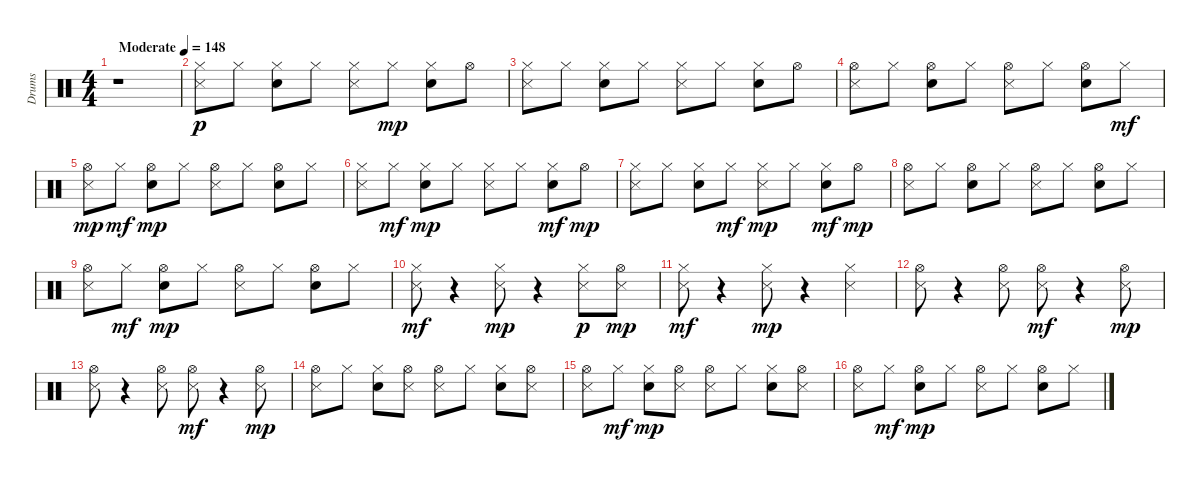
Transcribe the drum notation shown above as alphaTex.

\track ("Drums" "Drums") {instrument percussion}
\staff {score}
\articulation defaults
\ts (4 4)
\tempo (148 "Moderate")
\clef neutral
\ks c
r.1{dy p} |
("Hi-Hat (closed)" "Metronome (hit)").8 "Hi-Hat (closed)".8 ("Hi-Hat (closed)" "Electric Snare (hit)").8 "Hi-Hat (closed)".8 ("Hi-Hat (closed)" "Metronome (hit)").8 "Hi-Hat (closed)".8{dy mp} ("Hi-Hat (closed)" "Electric Snare (hit)").8 "Hi-Hat (open)".8 |
("Hi-Hat (closed)" "Metronome (hit)").8 "Hi-Hat (closed)".8 ("Hi-Hat (closed)" "Electric Snare (hit)").8 "Hi-Hat (closed)".8 ("Hi-Hat (closed)" "Metronome (hit)").8 "Hi-Hat (closed)".8 ("Hi-Hat (closed)" "Electric Snare (hit)").8 "Hi-Hat (open)".8 |
("Hi-Hat (open)" "Metronome (hit)").8 "Hi-Hat (closed)".8 ("Hi-Hat (open)" "Electric Snare (hit)").8 "Hi-Hat (closed)".8 ("Hi-Hat (open)" "Metronome (hit)").8 "Hi-Hat (closed)".8 ("Hi-Hat (open)" "Electric Snare (hit)").8 "Hi-Hat (closed)".8{dy mf} |
("Hi-Hat (open)" "Metronome (hit)").8{dy mp} "Hi-Hat (closed)".8{dy mf} ("Hi-Hat (open)" "Electric Snare (hit)").8{dy mp} "Hi-Hat (closed)".8 ("Hi-Hat (open)" "Metronome (hit)").8 "Hi-Hat (closed)".8 ("Hi-Hat (open)" "Electric Snare (hit)").8 "Hi-Hat (closed)".8 |
("Hi-Hat (closed)" "Metronome (hit)").8 "Hi-Hat (closed)".8{dy mf} ("Hi-Hat (closed)" "Electric Snare (hit)").8{dy mp} "Hi-Hat (closed)".8 ("Hi-Hat (closed)" "Metronome (hit)").8 "Hi-Hat (closed)".8 ("Hi-Hat (closed)" "Electric Snare (hit)").8{dy mf} "Hi-Hat (open)".8{dy mp} |
("Hi-Hat (closed)" "Metronome (hit)").8 "Hi-Hat (closed)".8 ("Hi-Hat (closed)" "Electric Snare (hit)").8 "Hi-Hat (closed)".8{dy mf} ("Hi-Hat (closed)" "Metronome (hit)").8{dy mp} "Hi-Hat (closed)".8 ("Hi-Hat (closed)" "Electric Snare (hit)").8{dy mf} "Hi-Hat (open)".8{dy mp} |
("Hi-Hat (open)" "Metronome (hit)").8 "Hi-Hat (closed)".8 ("Hi-Hat (open)" "Electric Snare (hit)").8 "Hi-Hat (closed)".8 ("Hi-Hat (open)" "Metronome (hit)").8 "Hi-Hat (closed)".8 ("Hi-Hat (open)" "Electric Snare (hit)").8 "Hi-Hat (closed)".8 |
("Hi-Hat (open)" "Metronome (hit)").8 "Hi-Hat (closed)".8{dy mf} ("Hi-Hat (open)" "Electric Snare (hit)").8{dy mp} "Hi-Hat (closed)".8 ("Hi-Hat (open)" "Metronome (hit)").8 "Hi-Hat (closed)".8 ("Hi-Hat (open)" "Electric Snare (hit)").8 "Hi-Hat (closed)".8 |
("Hi-Hat (closed)" "Metronome (hit)").8{dy mf} r.4 ("Hi-Hat (closed)" "Metronome (hit)").8{dy mp} r.4 ("Hi-Hat (closed)" "Metronome (hit)").8{dy p} ("Hi-Hat (open)" "Metronome (hit)").8{dy mp} |
("Hi-Hat (closed)" "Metronome (hit)").8{dy mf} r.4 ("Hi-Hat (closed)" "Metronome (hit)").8{dy mp} r.4 ("Hi-Hat (closed)" "Metronome (hit)").4 |
("Hi-Hat (open)" "Metronome (hit)").8 r.4 ("Hi-Hat (open)" "Metronome (hit)").8 ("Hi-Hat (open)" "Metronome (hit)").8{dy mf} r.4 ("Hi-Hat (open)" "Metronome (hit)").8{dy mp} |
("Hi-Hat (open)" "Metronome (hit)").8 r.4 ("Hi-Hat (open)" "Metronome (hit)").8 ("Hi-Hat (open)" "Metronome (hit)").8{dy mf} r.4 ("Hi-Hat (open)" "Metronome (hit)").8{dy mp} |
("Hi-Hat (open)" "Metronome (hit)").8 "Hi-Hat (closed)".8 ("Hi-Hat (closed)" "Electric Snare (hit)").8 ("Hi-Hat (open)" "Metronome (hit)").8 ("Hi-Hat (open)" "Metronome (hit)").8 "Hi-Hat (closed)".8 ("Hi-Hat (closed)" "Electric Snare (hit)").8 ("Hi-Hat (open)" "Metronome (hit)").8 |
("Hi-Hat (open)" "Metronome (hit)").8 "Hi-Hat (closed)".8{dy mf} ("Hi-Hat (closed)" "Electric Snare (hit)").8{dy mp} ("Hi-Hat (open)" "Metronome (hit)").8 ("Hi-Hat (open)" "Metronome (hit)").8 "Hi-Hat (closed)".8 ("Hi-Hat (closed)" "Electric Snare (hit)").8 ("Hi-Hat (open)" "Metronome (hit)").8 |
("Hi-Hat (open)" "Metronome (hit)").8 "Hi-Hat (closed)".8{dy mf} ("Hi-Hat (open)" "Electric Snare (hit)").8{dy mp} "Hi-Hat (closed)".8 ("Hi-Hat (open)" "Metronome (hit)").8 "Hi-Hat (closed)".8 ("Hi-Hat (open)" "Electric Snare (hit)").8 "Hi-Hat (closed)".8
